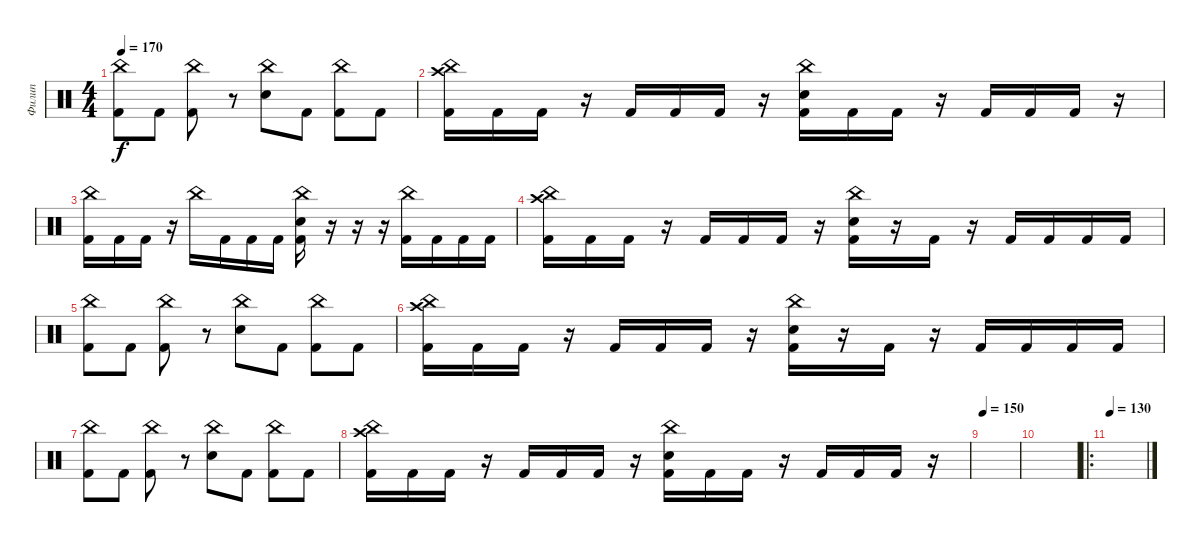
\track ("Филип" "Филип") {instrument percussion}
\staff {score}
\articulation defaults
\ts (4 4)
\tempo 170
\clef neutral
\ks c
("China (hit)" "Kick (hit) 2").8{dy f} "Kick (hit) 2".8 ("China (hit)" "Kick (hit) 2").8 r.8 ("China (hit)" "Electric Snare (hit)").8 "Kick (hit) 2".8 ("China (hit)" "Kick (hit) 2").8 "Kick (hit) 2".8 |
("China (hit)" "Crash high (hit)" "Kick (hit) 2").16 "Kick (hit) 2".16 "Kick (hit) 2".16 r.16 "Kick (hit) 2".16 "Kick (hit) 2".16 "Kick (hit) 2".16 r.16 ("China (hit)" "Electric Snare (hit)" "Kick (hit) 2").16 "Kick (hit) 2".16 "Kick (hit) 2".16 r.16 "Kick (hit) 2".16 "Kick (hit) 2".16 "Kick (hit) 2".16 r.16 |
("China (hit)" "Kick (hit) 2").16 "Kick (hit) 2".16 "Kick (hit) 2".16 r.16 "China (hit)".16 "Kick (hit) 2".16 "Kick (hit) 2".16 "Kick (hit) 2".16 ("China (hit)" "Electric Snare (hit)" "Kick (hit) 2").16 r.16 r.16 r.16 ("China (hit)" "Kick (hit) 2").16 "Kick (hit) 2".16 "Kick (hit) 2".16 "Kick (hit) 2".16 |
("China (hit)" "Crash high (hit)" "Kick (hit) 2").16 "Kick (hit) 2".16 "Kick (hit) 2".16 r.16 "Kick (hit) 2".16 "Kick (hit) 2".16 "Kick (hit) 2".16 r.16 ("China (hit)" "Electric Snare (hit)" "Kick (hit) 2").16 r.16 "Kick (hit) 2".16 r.16 "Kick (hit) 2".16 "Kick (hit) 2".16 "Kick (hit) 2".16 "Kick (hit) 2".16 |
("China (hit)" "Kick (hit) 2").8 "Kick (hit) 2".8 ("China (hit)" "Kick (hit) 2").8 r.8 ("China (hit)" "Electric Snare (hit)").8 "Kick (hit) 2".8 ("China (hit)" "Kick (hit) 2").8 "Kick (hit) 2".8 |
("China (hit)" "Crash high (hit)" "Kick (hit) 2").16 "Kick (hit) 2".16 "Kick (hit) 2".16 r.16 "Kick (hit) 2".16 "Kick (hit) 2".16 "Kick (hit) 2".16 r.16 ("China (hit)" "Electric Snare (hit)" "Kick (hit) 2").16 r.16 "Kick (hit) 2".16 r.16 "Kick (hit) 2".16 "Kick (hit) 2".16 "Kick (hit) 2".16 "Kick (hit) 2".16 |
("China (hit)" "Kick (hit) 2").8 "Kick (hit) 2".8 ("China (hit)" "Kick (hit) 2").8 r.8 ("China (hit)" "Electric Snare (hit)").8 "Kick (hit) 2".8 ("China (hit)" "Kick (hit) 2").8 "Kick (hit) 2".8 |
("China (hit)" "Crash high (hit)" "Kick (hit) 2").16 "Kick (hit) 2".16 "Kick (hit) 2".16 r.16 "Kick (hit) 2".16 "Kick (hit) 2".16 "Kick (hit) 2".16 r.16 ("China (hit)" "Electric Snare (hit)" "Kick (hit) 2").16 "Kick (hit) 2".16 "Kick (hit) 2".16 r.16 "Kick (hit) 2".16 "Kick (hit) 2".16 "Kick (hit) 2".16 r.16 |
\tempo 150
|
|
\ro
\tempo 130
